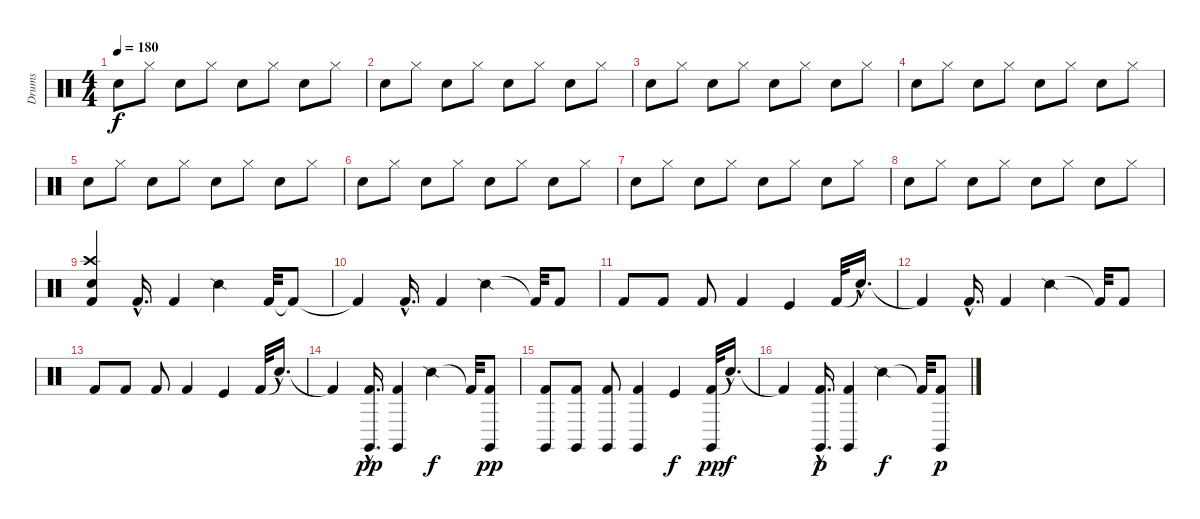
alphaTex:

\track ("Drums" "Drums") {instrument percussion}
\staff {score}
\articulation defaults
\ts (4 4)
\tempo 180
\clef neutral
\ks c "Snare (hit) 2".8{dy f} "Hi-Hat (closed)".8 "Snare (hit) 2".8 "Hi-Hat (closed)".8 "Snare (hit) 2".8 "Hi-Hat (closed)".8 "Snare (hit) 2".8 "Hi-Hat (closed)".8
|
"Snare (hit) 2".8 "Hi-Hat (closed)".8 "Snare (hit) 2".8 "Hi-Hat (closed)".8 "Snare (hit) 2".8 "Hi-Hat (closed)".8 "Snare (hit) 2".8 "Hi-Hat (closed)".8 |
"Snare (hit) 2".8 "Hi-Hat (closed)".8 "Snare (hit) 2".8 "Hi-Hat (closed)".8 "Snare (hit) 2".8 "Hi-Hat (closed)".8 "Snare (hit) 2".8 "Hi-Hat (closed)".8 |
"Snare (hit) 2".8 "Hi-Hat (closed)".8 "Snare (hit) 2".8 "Hi-Hat (closed)".8 "Snare (hit) 2".8 "Hi-Hat (closed)".8 "Snare (hit) 2".8 "Hi-Hat (closed)".8 |
"Snare (hit) 2".8 "Hi-Hat (closed)".8 "Snare (hit) 2".8 "Hi-Hat (closed)".8 "Snare (hit) 2".8 "Hi-Hat (closed)".8 "Snare (hit) 2".8 "Hi-Hat (closed)".8 |
"Snare (hit) 2".8 "Hi-Hat (closed)".8 "Snare (hit) 2".8 "Hi-Hat (closed)".8 "Snare (hit) 2".8 "Hi-Hat (closed)".8 "Snare (hit) 2".8 "Hi-Hat (closed)".8 |
"Snare (hit) 2".8 "Hi-Hat (closed)".8 "Snare (hit) 2".8 "Hi-Hat (closed)".8 "Snare (hit) 2".8 "Hi-Hat (closed)".8 "Snare (hit) 2".8 "Hi-Hat (closed)".8 |
"Snare (hit) 2".8 "Hi-Hat (closed)".8 "Snare (hit) 2".8 "Hi-Hat (closed)".8 "Snare (hit) 2".8 "Hi-Hat (closed)".8 "Snare (hit) 2".8 "Hi-Hat (closed)".8 |
("Crash high (hit)" "Snare (hit) 2" "Kick (hit) 2").4 "Kick (hit) 2"{hac}.16{d} "Kick (hit) 2".4 "Snare (side stick) 2".4 "Kick (hit) 2".32 "Kick (hit) 2"{t}.8 |
"Kick (hit) 2"{t}.4 "Kick (hit) 2"{hac}.16{d} "Kick (hit) 2".4 "Snare (side stick) 2".4 "Kick (hit) 2"{t}.32 "Kick (hit) 2".8 |
"Kick (hit) 2".8 "Kick (hit) 2".8 "Kick (hit) 2".8 "Kick (hit) 2".4 "Kick (hit)".4 "Kick (hit) 2".32 "Snare (hit)"{hac t}.16{d} |
"Kick (hit) 2"{t}.4 "Kick (hit) 2"{hac}.16{d} "Kick (hit) 2".4 "Snare (side stick) 2".4 "Kick (hit) 2"{t}.32 "Kick (hit) 2".8 |
"Kick (hit) 2".8 "Kick (hit) 2".8 "Kick (hit) 2".8 "Kick (hit) 2".4 "Kick (hit)".4 "Kick (hit) 2".32 "Snare (hit)"{hac t}.16{d} |
"Kick (hit) 2"{t}.4 ("Kick (hit) 2"{hac} "Claves (hit)"{hac}).16{d dy pp} ("Kick (hit) 2" "Claves (hit)").4 "Snare (side stick) 2".4{dy f} "Kick (hit) 2"{t}.32 ("Kick (hit) 2" "Claves (hit)").8{dy pp} |
("Kick (hit) 2" "Claves (hit)").8 ("Kick (hit) 2" "Claves (hit)").8 ("Kick (hit) 2" "Claves (hit)").8 ("Kick (hit) 2" "Claves (hit)").4 "Kick (hit)".4{dy f} ("Kick (hit) 2" "Claves (hit)").32{dy pp} "Snare (hit)"{hac t}.16{d dy f} |
"Kick (hit) 2"{t}.4 ("Kick (hit) 2"{hac} "Claves (hit)"{hac}).16{d dy p} ("Kick (hit) 2" "Claves (hit)").4 "Snare (side stick) 2".4{dy f} "Kick (hit) 2"{t}.32 ("Kick (hit) 2" "Claves (hit)").8{dy p}
